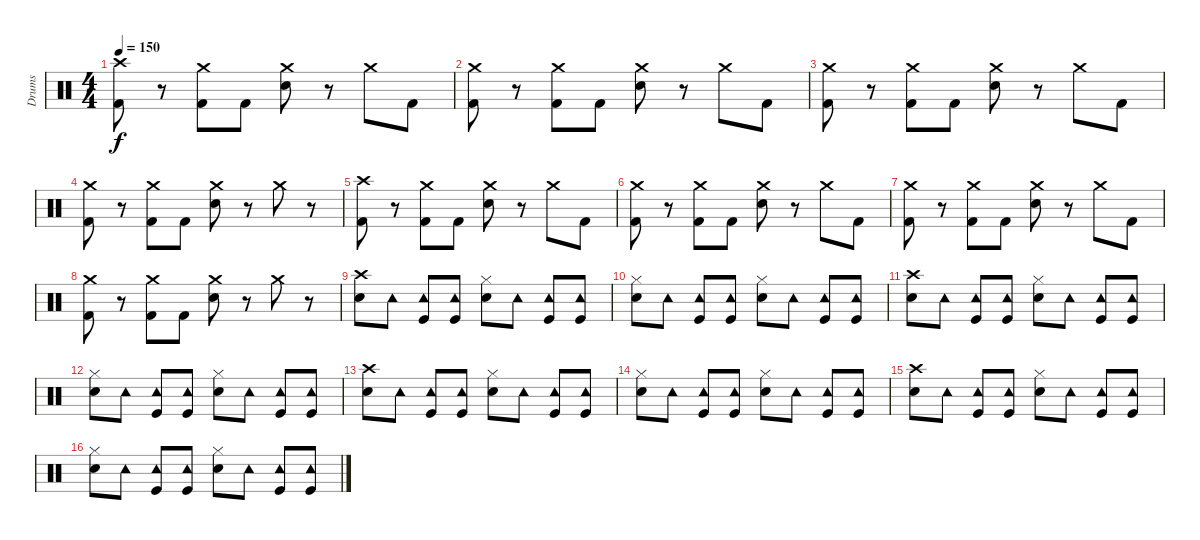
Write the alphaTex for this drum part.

\track ("Drums" "Drums") {instrument percussion}
\staff {score}
\articulation defaults
\ts (4 4)
\tempo 150
\clef neutral
\ks c
("Crash high (hit)" "Kick (hit) 2").8{dy f} r.8 ("Crash medium (hit)" "Kick (hit) 2").8 "Kick (hit) 2".8 ("Crash medium (hit)" "Snare (hit) 2").8 r.8 "Crash medium (hit)".8 "Kick (hit) 2".8 |
("Crash medium (hit)" "Kick (hit) 2").8 r.8 ("Crash medium (hit)" "Kick (hit) 2").8 "Kick (hit) 2".8 ("Crash medium (hit)" "Snare (hit) 2").8 r.8 "Crash medium (hit)".8 "Kick (hit) 2".8 |
("Crash medium (hit)" "Kick (hit) 2").8 r.8 ("Crash medium (hit)" "Kick (hit) 2").8 "Kick (hit) 2".8 ("Crash medium (hit)" "Snare (hit) 2").8 r.8 "Crash medium (hit)".8 "Kick (hit) 2".8 |
("Crash medium (hit)" "Kick (hit) 2").8 r.8 ("Crash medium (hit)" "Kick (hit) 2").8 "Kick (hit) 2".8 ("Crash medium (hit)" "Snare (hit) 2").8 r.8 "Crash medium (hit)".8 r.8 |
("Crash high (hit)" "Kick (hit) 2").8 r.8 ("Crash medium (hit)" "Kick (hit) 2").8 "Kick (hit) 2".8 ("Crash medium (hit)" "Snare (hit) 2").8 r.8 "Crash medium (hit)".8 "Kick (hit) 2".8 |
("Crash medium (hit)" "Kick (hit) 2").8 r.8 ("Crash medium (hit)" "Kick (hit) 2").8 "Kick (hit) 2".8 ("Crash medium (hit)" "Snare (hit) 2").8 r.8 "Crash medium (hit)".8 "Kick (hit) 2".8 |
("Crash medium (hit)" "Kick (hit) 2").8 r.8 ("Crash medium (hit)" "Kick (hit) 2").8 "Kick (hit) 2".8 ("Crash medium (hit)" "Snare (hit) 2").8 r.8 "Crash medium (hit)".8 "Kick (hit) 2".8 |
("Crash medium (hit)" "Kick (hit) 2").8 r.8 ("Crash medium (hit)" "Kick (hit) 2").8 "Kick (hit) 2".8 ("Crash medium (hit)" "Snare (hit) 2").8 r.8 "Crash medium (hit)".8 r.8 |
("Crash high (hit)" "Snare (hit) 2").8 "Tambourine (hit)".8 ("Tambourine (hit)" "Kick (hit)").8 ("Tambourine (hit)" "Kick (hit)").8 ("Hi-Hat (closed)" "Snare (hit) 2").8 "Tambourine (hit)".8 ("Tambourine (hit)" "Kick (hit)").8 ("Tambourine (hit)" "Kick (hit)").8 |
("Hi-Hat (closed)" "Snare (hit) 2").8 "Tambourine (hit)".8 ("Tambourine (hit)" "Kick (hit)").8 ("Tambourine (hit)" "Kick (hit)").8 ("Hi-Hat (closed)" "Snare (hit) 2").8 "Tambourine (hit)".8 ("Tambourine (hit)" "Kick (hit)").8 ("Tambourine (hit)" "Kick (hit)").8 |
("Crash high (hit)" "Snare (hit) 2").8 "Tambourine (hit)".8 ("Tambourine (hit)" "Kick (hit)").8 ("Tambourine (hit)" "Kick (hit)").8 ("Hi-Hat (closed)" "Snare (hit) 2").8 "Tambourine (hit)".8 ("Tambourine (hit)" "Kick (hit)").8 ("Tambourine (hit)" "Kick (hit)").8 |
("Hi-Hat (closed)" "Snare (hit) 2").8 "Tambourine (hit)".8 ("Tambourine (hit)" "Kick (hit)").8 ("Tambourine (hit)" "Kick (hit)").8 ("Hi-Hat (closed)" "Snare (hit) 2").8 "Tambourine (hit)".8 ("Tambourine (hit)" "Kick (hit)").8 ("Tambourine (hit)" "Kick (hit)").8 |
("Crash high (hit)" "Snare (hit) 2").8 "Tambourine (hit)".8 ("Tambourine (hit)" "Kick (hit)").8 ("Tambourine (hit)" "Kick (hit)").8 ("Hi-Hat (closed)" "Snare (hit) 2").8 "Tambourine (hit)".8 ("Tambourine (hit)" "Kick (hit)").8 ("Tambourine (hit)" "Kick (hit)").8 |
("Hi-Hat (closed)" "Snare (hit) 2").8 "Tambourine (hit)".8 ("Tambourine (hit)" "Kick (hit)").8 ("Tambourine (hit)" "Kick (hit)").8 ("Hi-Hat (closed)" "Snare (hit) 2").8 "Tambourine (hit)".8 ("Tambourine (hit)" "Kick (hit)").8 ("Tambourine (hit)" "Kick (hit)").8 |
("Crash high (hit)" "Snare (hit) 2").8 "Tambourine (hit)".8 ("Tambourine (hit)" "Kick (hit)").8 ("Tambourine (hit)" "Kick (hit)").8 ("Hi-Hat (closed)" "Snare (hit) 2").8 "Tambourine (hit)".8 ("Tambourine (hit)" "Kick (hit)").8 ("Tambourine (hit)" "Kick (hit)").8 |
("Hi-Hat (closed)" "Snare (hit) 2").8 "Tambourine (hit)".8 ("Tambourine (hit)" "Kick (hit)").8 ("Tambourine (hit)" "Kick (hit)").8 ("Hi-Hat (closed)" "Snare (hit) 2").8 "Tambourine (hit)".8 ("Tambourine (hit)" "Kick (hit)").8 ("Tambourine (hit)" "Kick (hit)").8
